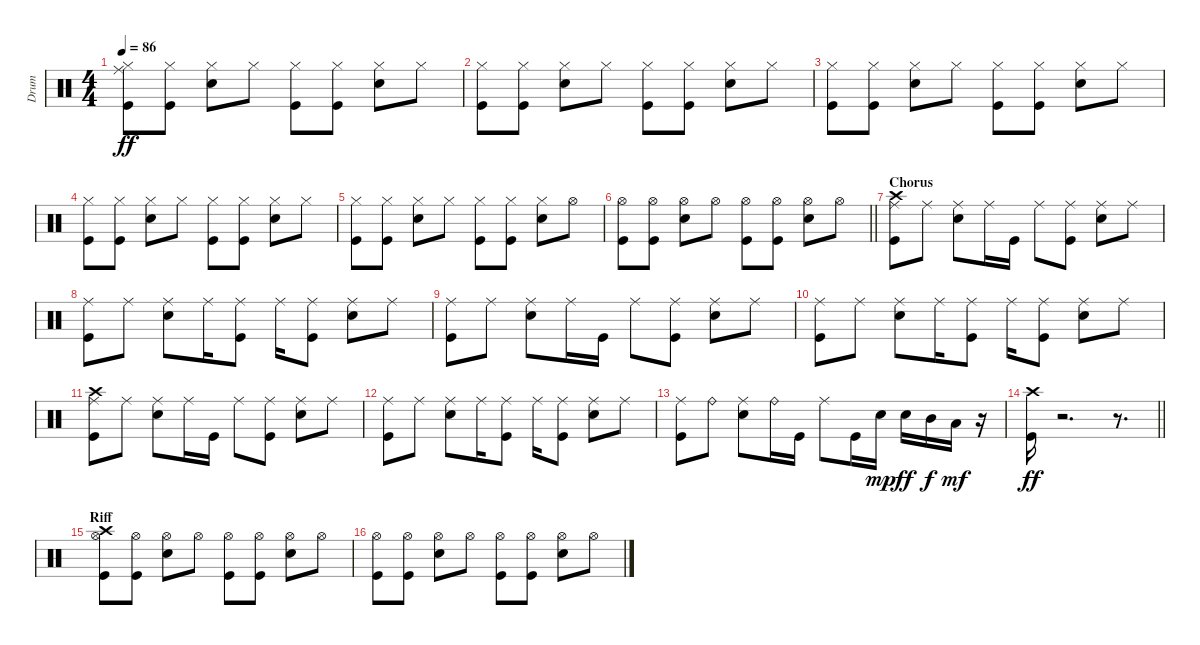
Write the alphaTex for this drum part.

\track ("Drum" "Drum") {instrument percussion}
\staff {score}
\articulation defaults
\ts (4 4)
\tempo 86
\clef neutral
\ks c
("Hi-Hat (closed)" "Ride (middle)" "Kick (hit)").8{dy ff} ("Hi-Hat (closed)" "Kick (hit)").8 ("Hi-Hat (closed)" "Electric Snare (hit)").8 "Hi-Hat (closed)".8 ("Hi-Hat (closed)" "Kick (hit)").8 ("Hi-Hat (closed)" "Kick (hit)").8 ("Hi-Hat (closed)" "Electric Snare (hit)").8 "Hi-Hat (closed)".8 |
("Hi-Hat (closed)" "Kick (hit)").8 ("Hi-Hat (closed)" "Kick (hit)").8 ("Hi-Hat (closed)" "Electric Snare (hit)").8 "Hi-Hat (closed)".8 ("Hi-Hat (closed)" "Kick (hit)").8 ("Hi-Hat (closed)" "Kick (hit)").8 ("Hi-Hat (closed)" "Electric Snare (hit)").8 "Hi-Hat (closed)".8 |
("Hi-Hat (closed)" "Kick (hit)").8 ("Hi-Hat (closed)" "Kick (hit)").8 ("Hi-Hat (closed)" "Electric Snare (hit)").8 "Hi-Hat (closed)".8 ("Hi-Hat (closed)" "Kick (hit)").8 ("Hi-Hat (closed)" "Kick (hit)").8 ("Hi-Hat (closed)" "Electric Snare (hit)").8 "Hi-Hat (closed)".8 |
("Hi-Hat (closed)" "Kick (hit)").8 ("Hi-Hat (closed)" "Kick (hit)").8 ("Hi-Hat (closed)" "Electric Snare (hit)").8 "Hi-Hat (closed)".8 ("Hi-Hat (closed)" "Kick (hit)").8 ("Hi-Hat (closed)" "Kick (hit)").8 ("Hi-Hat (closed)" "Electric Snare (hit)").8 "Hi-Hat (closed)".8 |
("Hi-Hat (closed)" "Kick (hit)").8 ("Hi-Hat (closed)" "Kick (hit)").8 ("Hi-Hat (closed)" "Electric Snare (hit)").8 "Hi-Hat (closed)".8 ("Hi-Hat (closed)" "Kick (hit)").8 ("Hi-Hat (closed)" "Kick (hit)").8 ("Hi-Hat (closed)" "Electric Snare (hit)").8 "Hi-Hat (open)".8 |
\barLineRight lightlight
("Kick (hit)" "Hi-Hat (open)").8 ("Hi-Hat (open)" "Kick (hit)").8 ("Hi-Hat (open)" "Electric Snare (hit)").8 "Hi-Hat (open)".8 ("Hi-Hat (open)" "Kick (hit)").8 ("Kick (hit)" "Hi-Hat (open)").8 ("Electric Snare (hit)" "Hi-Hat (open)").8 "Hi-Hat (open)".8 |
\section ("" "Chorus")
("Crash high (hit)" "Ride (middle)" "Kick (hit)").8 "Ride (middle)".8 ("Ride (middle)" "Electric Snare (hit)").8 "Ride (middle)".16 "Kick (hit)".16 "Ride (middle)".8 ("Ride (middle)" "Kick (hit)").8 ("Ride (middle)" "Electric Snare (hit)").8 "Ride (middle)".8 |
("Ride (middle)" "Kick (hit)").8 "Ride (middle)".8 ("Ride (middle)" "Electric Snare (hit)").8 "Ride (middle)".16 ("Ride (middle)" "Kick (hit)").8 "Ride (middle)".16 ("Ride (middle)" "Kick (hit)").8 ("Electric Snare (hit)" "Ride (middle)").8 "Ride (middle)".8 |
("Ride (middle)" "Kick (hit)").8 "Ride (middle)".8 ("Ride (middle)" "Electric Snare (hit)").8 "Ride (middle)".16 "Kick (hit)".16 "Ride (middle)".8 ("Ride (middle)" "Kick (hit)").8 ("Electric Snare (hit)" "Ride (middle)").8 "Ride (middle)".8 |
("Ride (middle)" "Kick (hit)").8 "Ride (middle)".8 ("Ride (middle)" "Electric Snare (hit)").8 "Ride (middle)".16 ("Ride (middle)" "Kick (hit)").8 "Ride (middle)".16 ("Ride (middle)" "Kick (hit)").8 ("Electric Snare (hit)" "Ride (middle)").8 "Ride (middle)".8 |
("Ride (middle)" "Kick (hit)" "Crash high (hit)").8 "Ride (middle)".8 ("Electric Snare (hit)" "Ride (middle)").8 "Ride (middle)".16 "Kick (hit)".16 "Ride (middle)".8 ("Ride (middle)" "Kick (hit)").8 ("Electric Snare (hit)" "Ride (middle)").8 "Ride (middle)".8 |
("Ride (middle)" "Kick (hit)").8 "Ride (middle)".8 ("Ride (middle)" "Electric Snare (hit)").8 "Ride (middle)".16 ("Ride (middle)" "Kick (hit)").8 "Ride (middle)".16 ("Ride (middle)" "Kick (hit)").8 ("Electric Snare (hit)" "Ride (middle)").8 "Ride (middle)".8 |
("Ride (middle)" "Kick (hit)").8 "Ride (bell)".8 ("Ride (middle)" "Electric Snare (hit)").8 "Ride (bell)".16 "Kick (hit)".16 "Ride (middle)".8 "Kick (hit)".16 "Electric Snare (hit)".16{dy mp} "Electric Snare (hit)".16{dy ff} "Mid Tom (hit)".16{dy f} "Low Tom (hit)".16{dy mf} r.16 |
\barLineRight lightlight
("Crash high (hit)" "Kick (hit)").16{dy ff} r.2{d} r.8{d} |
\section ("" "Riff")
("Crash high (hit)" "Kick (hit)" "Hi-Hat (open)").8 ("Hi-Hat (open)" "Kick (hit)").8 ("Electric Snare (hit)" "Hi-Hat (open)").8 "Hi-Hat (open)".8 ("Hi-Hat (open)" "Kick (hit)").8 ("Hi-Hat (open)" "Kick (hit)").8 ("Hi-Hat (open)" "Electric Snare (hit)").8 "Hi-Hat (open)".8 |
("Kick (hit)" "Hi-Hat (open)").8 ("Kick (hit)" "Hi-Hat (open)").8 ("Hi-Hat (open)" "Electric Snare (hit)").8 "Hi-Hat (open)".8 ("Hi-Hat (open)" "Kick (hit)").8 ("Hi-Hat (open)" "Kick (hit)").8 ("Electric Snare (hit)" "Hi-Hat (open)").8 "Hi-Hat (open)".8
